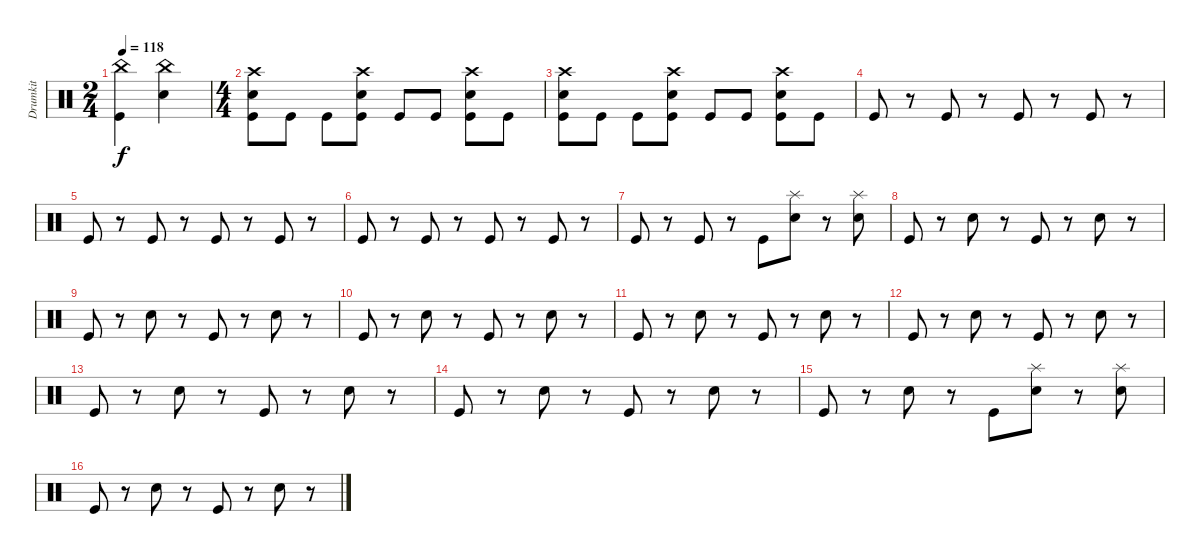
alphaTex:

\track ("Drumkit" "Drumkit") {instrument percussion}
\staff {score}
\articulation defaults
\ts (2 4)
\tempo 118
\clef neutral
\ks c
("China (hit)" "Kick (hit)").4{dy f} ("China (hit)" "Snare (hit) 2").4 |
\ts (4 4)
("Crash high (hit)" "Kick (hit)" "Snare (hit) 2").8 "Kick (hit)".8 "Kick (hit)".8 ("Crash high (hit)" "Kick (hit)" "Snare (hit) 2").8 "Kick (hit)".8 "Kick (hit)".8 ("Crash high (hit)" "Kick (hit)" "Snare (hit) 2").8 "Kick (hit)".8 |
("Crash high (hit)" "Kick (hit)" "Snare (hit) 2").8 "Kick (hit)".8 "Kick (hit)".8 ("Crash high (hit)" "Kick (hit)" "Snare (hit) 2").8 "Kick (hit)".8 "Kick (hit)".8 ("Crash high (hit)" "Kick (hit)" "Snare (hit) 2").8 "Kick (hit)".8 |
"Kick (hit)".8 r.8 "Kick (hit)".8 r.8 "Kick (hit)".8 r.8 "Kick (hit)".8 r.8 |
"Kick (hit)".8 r.8 "Kick (hit)".8 r.8 "Kick (hit)".8 r.8 "Kick (hit)".8 r.8 |
"Kick (hit)".8 r.8 "Kick (hit)".8 r.8 "Kick (hit)".8 r.8 "Kick (hit)".8 r.8 |
"Kick (hit)".8 r.8 "Kick (hit)".8 r.8 "Kick (hit)".8 ("Snare (hit) 2" "Splash (hit)").8 r.8 ("Snare (hit) 2" "Splash (hit)").8 |
"Kick (hit)".8 r.8 "Snare (hit) 2".8 r.8 "Kick (hit)".8 r.8 "Snare (hit) 2".8 r.8 |
"Kick (hit)".8 r.8 "Snare (hit) 2".8 r.8 "Kick (hit)".8 r.8 "Snare (hit) 2".8 r.8 |
"Kick (hit)".8 r.8 "Snare (hit) 2".8 r.8 "Kick (hit)".8 r.8 "Snare (hit) 2".8 r.8 |
"Kick (hit)".8 r.8 "Snare (hit) 2".8 r.8 "Kick (hit)".8 r.8 "Snare (hit) 2".8 r.8 |
"Kick (hit)".8 r.8 "Snare (hit) 2".8 r.8 "Kick (hit)".8 r.8 "Snare (hit) 2".8 r.8 |
"Kick (hit)".8 r.8 "Snare (hit) 2".8 r.8 "Kick (hit)".8 r.8 "Snare (hit) 2".8 r.8 |
"Kick (hit)".8 r.8 "Snare (hit) 2".8 r.8 "Kick (hit)".8 r.8 "Snare (hit) 2".8 r.8 |
"Kick (hit)".8 r.8 "Snare (hit) 2".8 r.8 "Kick (hit)".8 ("Snare (hit) 2" "Splash (hit)").8 r.8 ("Snare (hit) 2" "Splash (hit)").8 |
"Kick (hit)".8 r.8 "Snare (hit) 2".8 r.8 "Kick (hit)".8 r.8 "Snare (hit) 2".8 r.8
